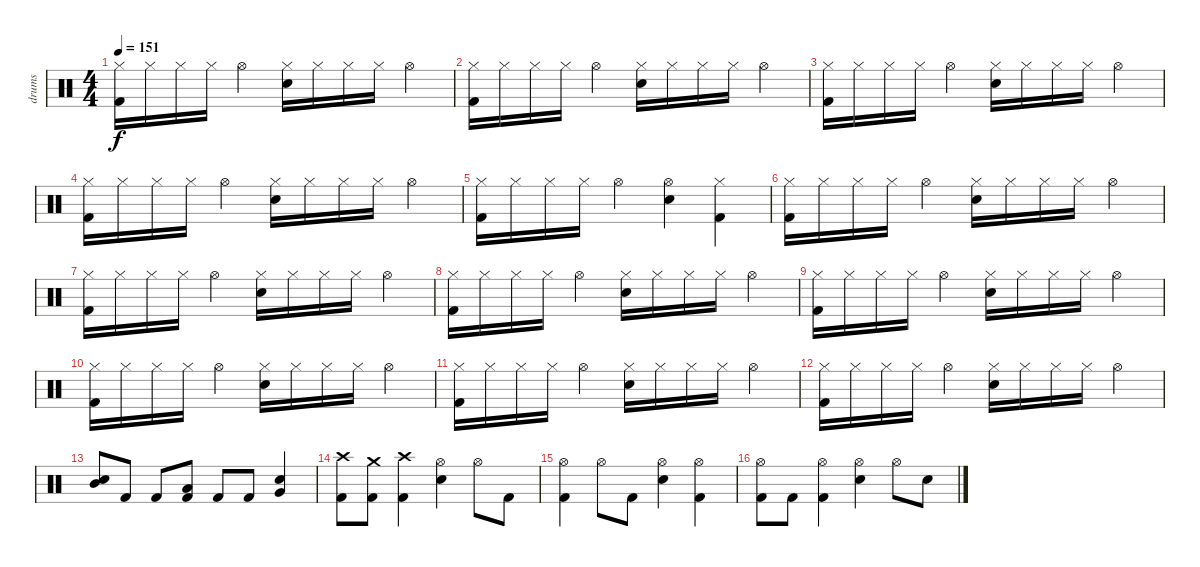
\track ("drums" "drums") {instrument percussion}
\staff {score}
\articulation defaults
\ts (4 4)
\tempo 151
\clef neutral
\ks c
("Hi-Hat (closed)" "Kick (hit) 2").16{dy f} "Hi-Hat (closed)".16 "Hi-Hat (closed)".16 "Hi-Hat (closed)".16 "Hi-Hat (open)".4 ("Hi-Hat (closed)" "Electric Snare (hit)").16 "Hi-Hat (closed)".16 "Hi-Hat (closed)".16 "Hi-Hat (closed)".16 "Hi-Hat (open)".4 |
("Hi-Hat (closed)" "Kick (hit) 2").16 "Hi-Hat (closed)".16 "Hi-Hat (closed)".16 "Hi-Hat (closed)".16 "Hi-Hat (open)".4 ("Hi-Hat (closed)" "Electric Snare (hit)").16 "Hi-Hat (closed)".16 "Hi-Hat (closed)".16 "Hi-Hat (closed)".16 "Hi-Hat (open)".4 |
("Hi-Hat (closed)" "Kick (hit) 2").16 "Hi-Hat (closed)".16 "Hi-Hat (closed)".16 "Hi-Hat (closed)".16 "Hi-Hat (open)".4 ("Hi-Hat (closed)" "Electric Snare (hit)").16 "Hi-Hat (closed)".16 "Hi-Hat (closed)".16 "Hi-Hat (closed)".16 "Hi-Hat (open)".4 |
("Hi-Hat (closed)" "Kick (hit) 2").16 "Hi-Hat (closed)".16 "Hi-Hat (closed)".16 "Hi-Hat (closed)".16 "Hi-Hat (open)".4 ("Hi-Hat (closed)" "Electric Snare (hit)").16 "Hi-Hat (closed)".16 "Hi-Hat (closed)".16 "Hi-Hat (closed)".16 "Hi-Hat (open)".4 |
("Kick (hit) 2" "Hi-Hat (closed)").16 "Hi-Hat (closed)".16 "Hi-Hat (closed)".16 "Hi-Hat (closed)".16 "Hi-Hat (open)".4 ("Hi-Hat (open)" "Electric Snare (hit)").4 ("Hi-Hat (closed)" "Kick (hit) 2").4 |
("Hi-Hat (closed)" "Kick (hit) 2").16 "Hi-Hat (closed)".16 "Hi-Hat (closed)".16 "Hi-Hat (closed)".16 "Hi-Hat (open)".4 ("Hi-Hat (closed)" "Electric Snare (hit)").16 "Hi-Hat (closed)".16 "Hi-Hat (closed)".16 "Hi-Hat (closed)".16 "Hi-Hat (open)".4 |
("Hi-Hat (closed)" "Kick (hit) 2").16 "Hi-Hat (closed)".16 "Hi-Hat (closed)".16 "Hi-Hat (closed)".16 "Hi-Hat (open)".4 ("Hi-Hat (closed)" "Electric Snare (hit)").16 "Hi-Hat (closed)".16 "Hi-Hat (closed)".16 "Hi-Hat (closed)".16 "Hi-Hat (open)".4 |
("Hi-Hat (closed)" "Kick (hit) 2").16 "Hi-Hat (closed)".16 "Hi-Hat (closed)".16 "Hi-Hat (closed)".16 "Hi-Hat (open)".4 ("Hi-Hat (closed)" "Electric Snare (hit)").16 "Hi-Hat (closed)".16 "Hi-Hat (closed)".16 "Hi-Hat (closed)".16 "Hi-Hat (open)".4 |
("Hi-Hat (closed)" "Kick (hit) 2").16 "Hi-Hat (closed)".16 "Hi-Hat (closed)".16 "Hi-Hat (closed)".16 "Hi-Hat (open)".4 ("Hi-Hat (closed)" "Electric Snare (hit)").16 "Hi-Hat (closed)".16 "Hi-Hat (closed)".16 "Hi-Hat (closed)".16 "Hi-Hat (open)".4 |
("Kick (hit) 2" "Hi-Hat (closed)").16 "Hi-Hat (closed)".16 "Hi-Hat (closed)".16 "Hi-Hat (closed)".16 "Hi-Hat (open)".4 ("Hi-Hat (closed)" "Electric Snare (hit)").16 "Hi-Hat (closed)".16 "Hi-Hat (closed)".16 "Hi-Hat (closed)".16 "Hi-Hat (open)".4 |
("Hi-Hat (closed)" "Kick (hit) 2").16 "Hi-Hat (closed)".16 "Hi-Hat (closed)".16 "Hi-Hat (closed)".16 "Hi-Hat (open)".4 ("Hi-Hat (closed)" "Electric Snare (hit)").16 "Hi-Hat (closed)".16 "Hi-Hat (closed)".16 "Hi-Hat (closed)".16 "Hi-Hat (open)".4 |
("Hi-Hat (closed)" "Kick (hit) 2").16 "Hi-Hat (closed)".16 "Hi-Hat (closed)".16 "Hi-Hat (closed)".16 "Hi-Hat (open)".4 ("Hi-Hat (closed)" "Electric Snare (hit)").16 "Hi-Hat (closed)".16 "Hi-Hat (closed)".16 "Hi-Hat (closed)".16 "Hi-Hat (open)".4 |
("Mid Tom (hit)" "Electric Snare (hit)").8 "Kick (hit) 2".8 "Kick (hit) 2".8 ("Low Tom (hit)" "Kick (hit) 2").8 "Kick (hit) 2".8 "Kick (hit) 2".8 ("Very Low Tom (hit)" "Electric Snare (hit)").4 |
("Kick (hit) 2" "Crash high (hit)").8 ("Crash medium (hit)" "Kick (hit) 2").8 ("Crash high (hit)" "Kick (hit) 2").4 ("Hi-Hat (open)" "Electric Snare (hit)").4 "Hi-Hat (open)".8 "Kick (hit) 2".8 |
("Hi-Hat (open)" "Kick (hit) 2").4 "Hi-Hat (open)".8 "Kick (hit) 2".8 ("Hi-Hat (open)" "Electric Snare (hit)").4 ("Hi-Hat (open)" "Kick (hit) 2").4 |
("Hi-Hat (open)" "Kick (hit) 2").8 "Kick (hit) 2".8 ("Hi-Hat (open)" "Kick (hit) 2").4 ("Hi-Hat (open)" "Electric Snare (hit)").4 "Hi-Hat (open)".8 "Electric Snare (hit)".8
